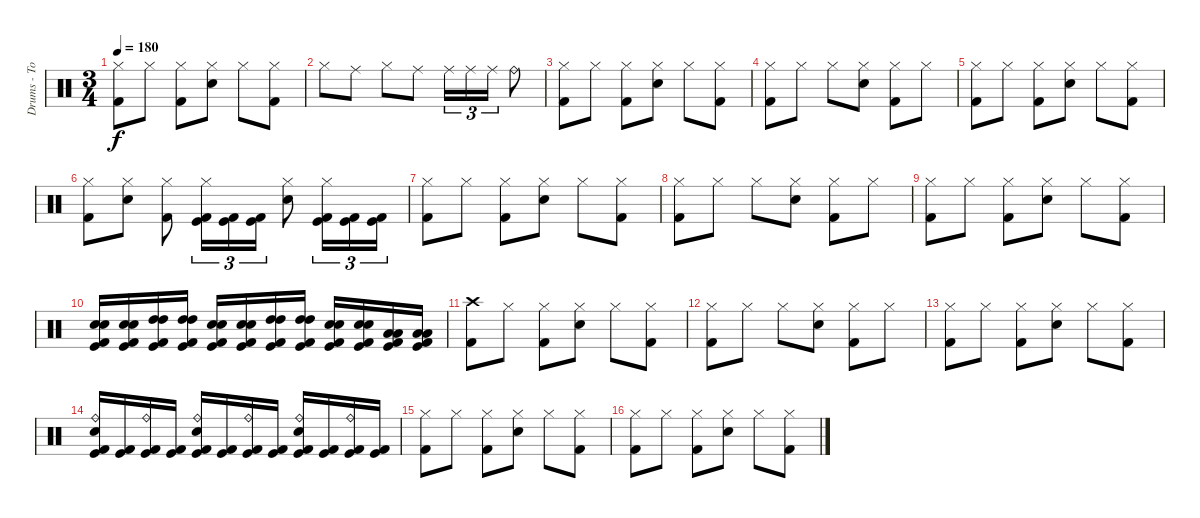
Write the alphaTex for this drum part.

\track ("Drums - Tomas" "Drums - To") {instrument percussion}
\staff {score}
\articulation defaults
\ts (3 4)
\tempo 180
\clef neutral
\ks c
("Hi-Hat (closed)" "Kick (hit) 2").8{dy f} "Hi-Hat (closed)".8 ("Hi-Hat (closed)" "Kick (hit) 2").8 ("Hi-Hat (closed)" "Electric Snare (hit)").8 "Hi-Hat (closed)".8 ("Hi-Hat (closed)" "Kick (hit) 2").8 |
"Hi-Hat (closed)".8 "Ride (middle)".8 "Hi-Hat (closed)".8 "Ride (middle)".8 "Ride (middle)".16{tu (3 2)} "Ride (middle)".16{tu (3 2)} "Ride (middle)".16{tu (3 2)} "Ride (bell)".8 |
("Hi-Hat (closed)" "Kick (hit) 2").8 "Hi-Hat (closed)".8 ("Hi-Hat (closed)" "Kick (hit) 2").8 ("Hi-Hat (closed)" "Electric Snare (hit)").8 "Hi-Hat (closed)".8 ("Hi-Hat (closed)" "Kick (hit) 2").8 |
("Hi-Hat (closed)" "Kick (hit) 2").8 "Hi-Hat (closed)".8 "Hi-Hat (closed)".8 ("Hi-Hat (closed)" "Electric Snare (hit)").8 ("Hi-Hat (closed)" "Kick (hit) 2").8 "Hi-Hat (closed)".8 |
("Hi-Hat (closed)" "Kick (hit) 2").8 "Hi-Hat (closed)".8 ("Hi-Hat (closed)" "Kick (hit) 2").8 ("Hi-Hat (closed)" "Electric Snare (hit)").8 "Hi-Hat (closed)".8 ("Hi-Hat (closed)" "Kick (hit) 2").8 |
("Hi-Hat (closed)" "Kick (hit) 2").8 ("Hi-Hat (closed)" "Electric Snare (hit)").8 ("Hi-Hat (closed)" "Kick (hit) 2").8 ("Hi-Hat (closed)" "Kick (hit)" "Kick (hit) 2").16{tu (3 2)} ("Kick (hit)" "Kick (hit) 2").16{tu (3 2)} ("Kick (hit)" "Kick (hit) 2").16{tu (3 2)} ("Hi-Hat (closed)" "Electric Snare (hit)").8 ("Hi-Hat (closed)" "Kick (hit)" "Kick (hit) 2").16{tu (3 2)} ("Kick (hit)" "Kick (hit) 2").16{tu (3 2)} ("Kick (hit)" "Kick (hit) 2").16{tu (3 2)} |
("Hi-Hat (closed)" "Kick (hit) 2").8 "Hi-Hat (closed)".8 ("Hi-Hat (closed)" "Kick (hit) 2").8 ("Hi-Hat (closed)" "Electric Snare (hit)").8 "Hi-Hat (closed)".8 ("Hi-Hat (closed)" "Kick (hit) 2").8 |
("Hi-Hat (closed)" "Kick (hit) 2").8 "Hi-Hat (closed)".8 "Hi-Hat (closed)".8 ("Hi-Hat (closed)" "Electric Snare (hit)").8 ("Hi-Hat (closed)" "Kick (hit) 2").8 "Hi-Hat (closed)".8 |
("Hi-Hat (closed)" "Kick (hit) 2").8 "Hi-Hat (closed)".8 ("Hi-Hat (closed)" "Kick (hit) 2").8 ("Hi-Hat (closed)" "Electric Snare (hit)").8 "Hi-Hat (closed)".8 ("Hi-Hat (closed)" "Kick (hit) 2").8 |
("Electric Snare (hit)" "Electric Snare (hit)" "Kick (hit)" "Kick (hit) 2").16 ("Electric Snare (hit)" "Electric Snare (hit)" "Kick (hit)" "Kick (hit) 2").16 ("High Tom (hit)" "High Tom (hit)" "Kick (hit)" "Kick (hit) 2").16 ("High Tom (hit)" "High Tom (hit)" "Kick (hit)" "Kick (hit) 2").16 ("Electric Snare (hit)" "Electric Snare (hit)" "Kick (hit)" "Kick (hit) 2").16 ("Electric Snare (hit)" "Electric Snare (hit)" "Kick (hit)" "Kick (hit) 2").16 ("High Tom (hit)" "High Tom (hit)" "Kick (hit)" "Kick (hit) 2").16 ("High Tom (hit)" "High Tom (hit)" "Kick (hit)" "Kick (hit) 2").16 ("Electric Snare (hit)" "Electric Snare (hit)" "Kick (hit)" "Kick (hit) 2").16 ("Electric Snare (hit)" "Electric Snare (hit)" "Kick (hit)" "Kick (hit) 2").16 ("Low Tom (hit)" "Low Tom (hit)" "Kick (hit)" "Kick (hit) 2").16 ("Low Tom (hit)" "Low Tom (hit)" "Kick (hit)" "Kick (hit) 2").16 |
("Crash high (hit)" "Kick (hit) 2").8 "Hi-Hat (closed)".8 ("Hi-Hat (closed)" "Kick (hit) 2").8 ("Hi-Hat (closed)" "Electric Snare (hit)").8 "Hi-Hat (closed)".8 ("Hi-Hat (closed)" "Kick (hit) 2").8 |
("Hi-Hat (closed)" "Kick (hit) 2").8 "Hi-Hat (closed)".8 "Hi-Hat (closed)".8 ("Hi-Hat (closed)" "Electric Snare (hit)").8 ("Hi-Hat (closed)" "Kick (hit) 2").8 "Hi-Hat (closed)".8 |
("Hi-Hat (closed)" "Kick (hit) 2").8 "Hi-Hat (closed)".8 ("Hi-Hat (closed)" "Kick (hit) 2").8 ("Hi-Hat (closed)" "Electric Snare (hit)").8 "Hi-Hat (closed)".8 ("Hi-Hat (closed)" "Kick (hit) 2").8 |
("Ride (bell)" "Electric Snare (hit)" "Kick (hit)" "Kick (hit) 2").16 ("Kick (hit)" "Kick (hit) 2").16 ("Ride (bell)" "Kick (hit)" "Kick (hit) 2").16 ("Kick (hit)" "Kick (hit) 2").16 ("Ride (bell)" "Electric Snare (hit)" "Kick (hit)" "Kick (hit) 2").16 ("Kick (hit)" "Kick (hit) 2").16 ("Ride (bell)" "Kick (hit)" "Kick (hit) 2").16 ("Kick (hit)" "Kick (hit) 2").16 ("Ride (bell)" "Electric Snare (hit)" "Kick (hit)" "Kick (hit) 2").16 ("Kick (hit)" "Kick (hit) 2").16 ("Ride (bell)" "Kick (hit)" "Kick (hit) 2").16 ("Kick (hit)" "Kick (hit) 2").16 |
("Hi-Hat (closed)" "Kick (hit) 2").8 "Hi-Hat (closed)".8 ("Hi-Hat (closed)" "Kick (hit) 2").8 ("Hi-Hat (closed)" "Electric Snare (hit)").8 "Hi-Hat (closed)".8 ("Hi-Hat (closed)" "Kick (hit) 2").8 |
("Hi-Hat (closed)" "Kick (hit) 2").8 "Hi-Hat (closed)".8 ("Hi-Hat (closed)" "Kick (hit) 2").8 ("Hi-Hat (closed)" "Electric Snare (hit)").8 "Hi-Hat (closed)".8 ("Hi-Hat (closed)" "Kick (hit) 2").8
